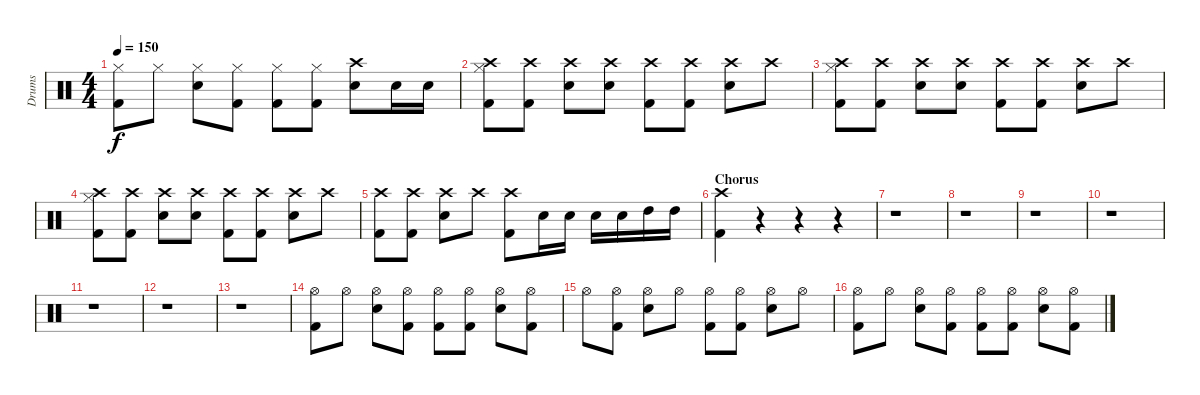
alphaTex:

\track ("Drums" "Drums") {instrument percussion}
\staff {score}
\articulation defaults
\ts (4 4)
\tempo 150
\clef neutral
\ks c
("Hi-Hat (closed)" "Kick (hit) 2").8{dy f} "Hi-Hat (closed)".8 ("Hi-Hat (closed)" "Electric Snare (hit)").8 ("Hi-Hat (closed)" "Kick (hit) 2").8 ("Hi-Hat (closed)" "Kick (hit) 2").8 ("Hi-Hat (closed)" "Kick (hit) 2").8 ("Crash high (hit)" "Electric Snare (hit)").8 "Electric Snare (hit)".16 "Electric Snare (hit)".16 |
("Crash high (hit)" "Hi-Hat (closed)" "Kick (hit) 2").8 ("Crash high (hit)" "Kick (hit) 2").8 ("Crash high (hit)" "Electric Snare (hit)").8 ("Crash high (hit)" "Electric Snare (hit)").8 ("Crash high (hit)" "Kick (hit) 2").8 ("Crash high (hit)" "Kick (hit) 2").8 ("Crash high (hit)" "Electric Snare (hit)").8 "Crash high (hit)".8 |
("Crash high (hit)" "Hi-Hat (closed)" "Kick (hit) 2").8 ("Crash high (hit)" "Kick (hit) 2").8 ("Crash high (hit)" "Electric Snare (hit)").8 ("Crash high (hit)" "Electric Snare (hit)").8 ("Crash high (hit)" "Kick (hit) 2").8 ("Crash high (hit)" "Kick (hit) 2").8 ("Crash high (hit)" "Electric Snare (hit)").8 "Crash high (hit)".8 |
("Crash high (hit)" "Hi-Hat (closed)" "Kick (hit) 2").8 ("Crash high (hit)" "Kick (hit) 2").8 ("Crash high (hit)" "Electric Snare (hit)").8 ("Crash high (hit)" "Electric Snare (hit)").8 ("Crash high (hit)" "Kick (hit) 2").8 ("Crash high (hit)" "Kick (hit) 2").8 ("Crash high (hit)" "Electric Snare (hit)").8 "Crash high (hit)".8 |
("Crash high (hit)" "Kick (hit) 2").8 ("Crash high (hit)" "Kick (hit) 2").8 ("Crash high (hit)" "Electric Snare (hit)").8 "Crash high (hit)".8 ("Crash high (hit)" "Kick (hit) 2").8 "Electric Snare (hit)".16 "Electric Snare (hit)".16 "Electric Snare (hit)".16 "Electric Snare (hit)".16 "High Tom (hit)".16 "High Tom (hit)".16 |
\section ("" "Chorus")
("Crash high (hit)" "Kick (hit) 2").4 r.4 r.4 r.4 |
r.1 |
r.1 |
r.1 |
r.1 |
r.1 |
r.1 |
r.1 |
("Hi-Hat (open)" "Kick (hit) 2").8 "Hi-Hat (open)".8 ("Hi-Hat (open)" "Electric Snare (hit)").8 ("Hi-Hat (open)" "Kick (hit) 2").8 ("Hi-Hat (open)" "Kick (hit) 2").8 ("Hi-Hat (open)" "Kick (hit) 2").8 ("Hi-Hat (open)" "Electric Snare (hit)").8 ("Hi-Hat (open)" "Kick (hit) 2").8 |
"Hi-Hat (open)".8 ("Hi-Hat (open)" "Kick (hit) 2").8 ("Hi-Hat (open)" "Electric Snare (hit)").8 "Hi-Hat (open)".8 ("Hi-Hat (open)" "Kick (hit) 2").8 ("Hi-Hat (open)" "Kick (hit) 2").8 ("Hi-Hat (open)" "Electric Snare (hit)").8 "Hi-Hat (open)".8 |
("Hi-Hat (open)" "Kick (hit) 2").8 "Hi-Hat (open)".8 ("Hi-Hat (open)" "Electric Snare (hit)").8 ("Hi-Hat (open)" "Kick (hit) 2").8 ("Hi-Hat (open)" "Kick (hit) 2").8 ("Hi-Hat (open)" "Kick (hit) 2").8 ("Hi-Hat (open)" "Electric Snare (hit)").8 ("Hi-Hat (open)" "Kick (hit) 2").8
